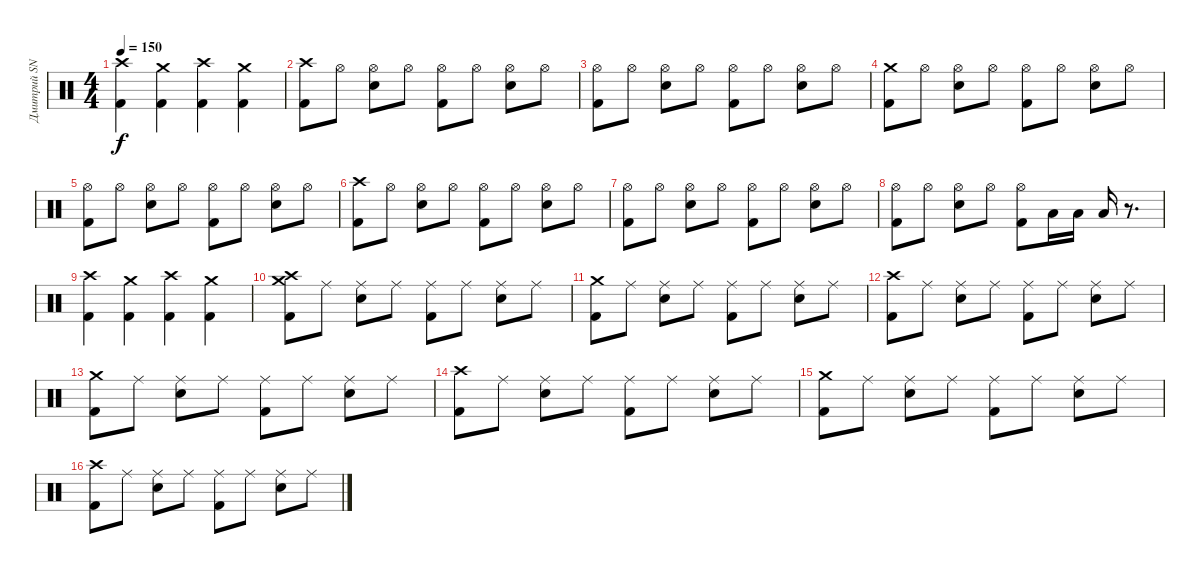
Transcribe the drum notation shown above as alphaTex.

\track ("Дмитрий SNAKE Хакимов" "Дмитрий SN") {instrument percussion}
\staff {score}
\articulation defaults
\ts (4 4)
\tempo 150
\clef neutral
\ks c
("Crash high (hit)" "Kick (hit) 2").4{dy f} ("Crash medium (hit)" "Kick (hit) 2").4 ("Crash high (hit)" "Kick (hit) 2").4 ("Crash medium (hit)" "Kick (hit) 2").4 |
("Crash high (hit)" "Kick (hit) 2").8 "Hi-Hat (open)".8 ("Hi-Hat (open)" "Snare (hit) 2").8 "Hi-Hat (open)".8 ("Hi-Hat (open)" "Kick (hit) 2").8 "Hi-Hat (open)".8 ("Hi-Hat (open)" "Snare (hit) 2").8 "Hi-Hat (open)".8 |
("Hi-Hat (open)" "Kick (hit) 2").8 "Hi-Hat (open)".8 ("Hi-Hat (open)" "Snare (hit) 2").8 "Hi-Hat (open)".8 ("Hi-Hat (open)" "Kick (hit) 2").8 "Hi-Hat (open)".8 ("Hi-Hat (open)" "Snare (hit) 2").8 "Hi-Hat (open)".8 |
("Crash medium (hit)" "Kick (hit) 2").8 "Hi-Hat (open)".8 ("Hi-Hat (open)" "Snare (hit) 2").8 "Hi-Hat (open)".8 ("Hi-Hat (open)" "Kick (hit) 2").8 "Hi-Hat (open)".8 ("Hi-Hat (open)" "Snare (hit) 2").8 "Hi-Hat (open)".8 |
("Hi-Hat (open)" "Kick (hit) 2").8 "Hi-Hat (open)".8 ("Hi-Hat (open)" "Snare (hit) 2").8 "Hi-Hat (open)".8 ("Hi-Hat (open)" "Kick (hit) 2").8 "Hi-Hat (open)".8 ("Hi-Hat (open)" "Snare (hit) 2").8 "Hi-Hat (open)".8 |
("Crash high (hit)" "Kick (hit) 2").8 "Hi-Hat (open)".8 ("Hi-Hat (open)" "Snare (hit) 2").8 "Hi-Hat (open)".8 ("Hi-Hat (open)" "Kick (hit) 2").8 "Hi-Hat (open)".8 ("Hi-Hat (open)" "Snare (hit) 2").8 "Hi-Hat (open)".8 |
("Hi-Hat (open)" "Kick (hit) 2").8 "Hi-Hat (open)".8 ("Hi-Hat (open)" "Snare (hit) 2").8 "Hi-Hat (open)".8 ("Hi-Hat (open)" "Kick (hit) 2").8 "Hi-Hat (open)".8 ("Hi-Hat (open)" "Snare (hit) 2").8 "Hi-Hat (open)".8 |
("Hi-Hat (open)" "Kick (hit) 2").8 "Hi-Hat (open)".8 ("Hi-Hat (open)" "Snare (hit) 2").8 "Hi-Hat (open)".8 ("Hi-Hat (open)" "Kick (hit) 2").8 "Low Tom (hit)".16 "Low Tom (hit)".16 "Low Tom (hit)".16 r.8{d} |
("Crash high (hit)" "Kick (hit) 2").4 ("Crash medium (hit)" "Kick (hit) 2").4 ("Crash high (hit)" "Kick (hit) 2").4 ("Crash medium (hit)" "Kick (hit) 2").4 |
("Crash high (hit)" "Crash medium (hit)" "Kick (hit) 2").8 "Ride (middle)".8 ("Ride (middle)" "Snare (hit) 2").8 "Ride (middle)".8 ("Ride (middle)" "Kick (hit) 2").8 "Ride (middle)".8 ("Ride (middle)" "Snare (hit) 2").8 "Ride (middle)".8 |
("Crash medium (hit)" "Kick (hit) 2").8 "Ride (middle)".8 ("Ride (middle)" "Snare (hit) 2").8 "Ride (middle)".8 ("Ride (middle)" "Kick (hit) 2").8 "Ride (middle)".8 ("Ride (middle)" "Snare (hit) 2").8 "Ride (middle)".8 |
("Crash high (hit)" "Kick (hit) 2").8 "Ride (middle)".8 ("Ride (middle)" "Snare (hit) 2").8 "Ride (middle)".8 ("Ride (middle)" "Kick (hit) 2").8 "Ride (middle)".8 ("Ride (middle)" "Snare (hit) 2").8 "Ride (middle)".8 |
("Crash medium (hit)" "Kick (hit) 2").8 "Ride (middle)".8 ("Ride (middle)" "Snare (hit) 2").8 "Ride (middle)".8 ("Ride (middle)" "Kick (hit) 2").8 "Ride (middle)".8 ("Ride (middle)" "Snare (hit) 2").8 "Ride (middle)".8 |
("Crash high (hit)" "Kick (hit) 2").8 "Ride (middle)".8 ("Ride (middle)" "Snare (hit) 2").8 "Ride (middle)".8 ("Ride (middle)" "Kick (hit) 2").8 "Ride (middle)".8 ("Ride (middle)" "Snare (hit) 2").8 "Ride (middle)".8 |
("Crash medium (hit)" "Kick (hit) 2").8 "Ride (middle)".8 ("Ride (middle)" "Snare (hit) 2").8 "Ride (middle)".8 ("Ride (middle)" "Kick (hit) 2").8 "Ride (middle)".8 ("Ride (middle)" "Snare (hit) 2").8 "Ride (middle)".8 |
("Crash high (hit)" "Kick (hit) 2").8 "Ride (middle)".8 ("Ride (middle)" "Snare (hit) 2").8 "Ride (middle)".8 ("Ride (middle)" "Kick (hit) 2").8 "Ride (middle)".8 ("Ride (middle)" "Snare (hit) 2").8 "Ride (middle)".8
